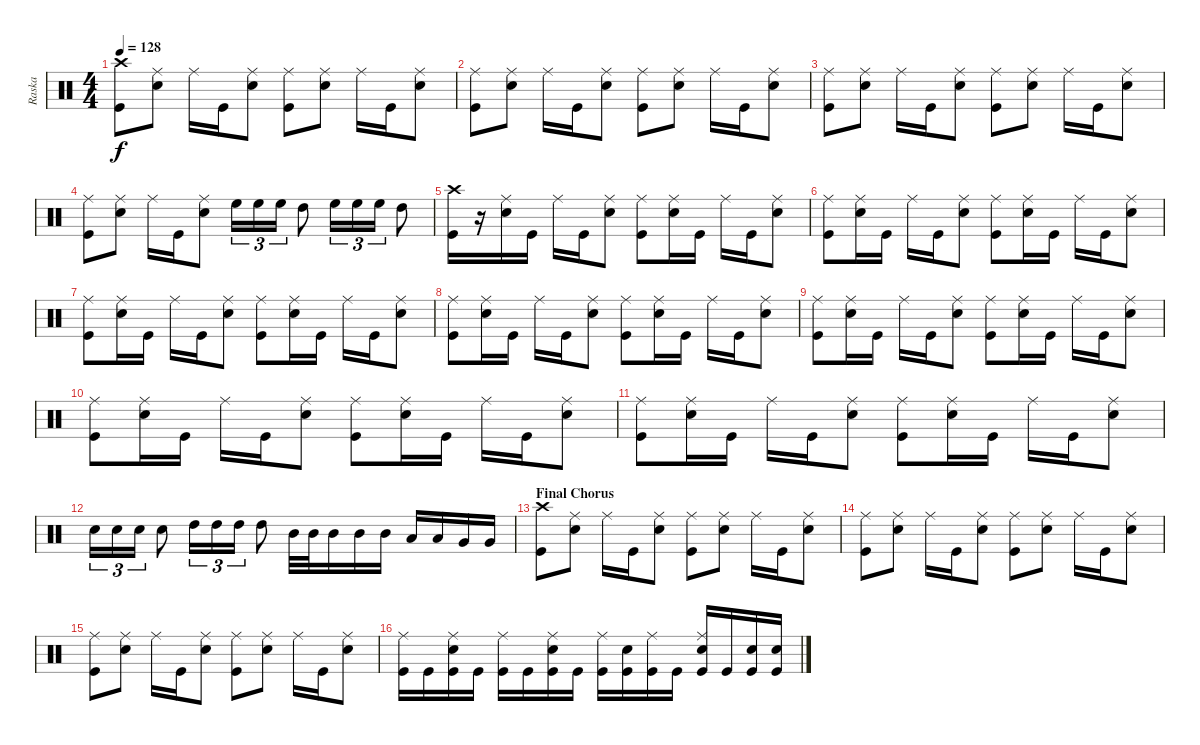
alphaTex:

\track ("Raska" "Raska") {instrument percussion}
\staff {score}
\articulation defaults
\ts (4 4)
\tempo 128
\clef neutral
\ks c
("Crash high (hit)" "Kick (hit)").8{dy f} ("Ride (middle)" "Electric Snare (hit)").8 "Ride (middle)".16 "Kick (hit)".16 ("Ride (middle)" "Electric Snare (hit)").8 ("Ride (middle)" "Kick (hit)").8 ("Ride (middle)" "Electric Snare (hit)").8 "Ride (middle)".16 "Kick (hit)".16 ("Ride (middle)" "Electric Snare (hit)").8 |
("Ride (middle)" "Kick (hit)").8 ("Ride (middle)" "Electric Snare (hit)").8 "Ride (middle)".16 "Kick (hit)".16 ("Ride (middle)" "Electric Snare (hit)").8 ("Ride (middle)" "Kick (hit)").8 ("Ride (middle)" "Electric Snare (hit)").8 "Ride (middle)".16 "Kick (hit)".16 ("Ride (middle)" "Electric Snare (hit)").8 |
("Ride (middle)" "Kick (hit)").8 ("Ride (middle)" "Electric Snare (hit)").8 "Ride (middle)".16 "Kick (hit)".16 ("Ride (middle)" "Electric Snare (hit)").8 ("Ride (middle)" "Kick (hit)").8 ("Ride (middle)" "Electric Snare (hit)").8 "Ride (middle)".16 "Kick (hit)".16 ("Ride (middle)" "Electric Snare (hit)").8 |
("Ride (middle)" "Kick (hit)").8 ("Ride (middle)" "Electric Snare (hit)").8 "Ride (middle)".16 "Kick (hit)".16 ("Ride (middle)" "Electric Snare (hit)").8 "High Floor Tom (hit)".16{tu (3 2)} "High Floor Tom (hit)".16{tu (3 2)} "High Floor Tom (hit)".16{tu (3 2)} "High Tom (hit)".8 "High Floor Tom (hit)".16{tu (3 2)} "High Floor Tom (hit)".16{tu (3 2)} "High Floor Tom (hit)".16{tu (3 2)} "High Tom (hit)".8 |
("Crash high (hit)" "Kick (hit)").16 r.16 ("Ride (middle)" "Electric Snare (hit)").16 "Kick (hit)".16 "Ride (middle)".16 "Kick (hit)".16 ("Ride (middle)" "Electric Snare (hit)").8 ("Ride (middle)" "Kick (hit)").8 ("Ride (middle)" "Electric Snare (hit)").16 "Kick (hit)".16 "Ride (middle)".16 "Kick (hit)".16 ("Ride (middle)" "Electric Snare (hit)").8 |
("Ride (middle)" "Kick (hit)").8 ("Ride (middle)" "Electric Snare (hit)").16 "Kick (hit)".16 "Ride (middle)".16 "Kick (hit)".16 ("Ride (middle)" "Electric Snare (hit)").8 ("Ride (middle)" "Kick (hit)").8 ("Ride (middle)" "Electric Snare (hit)").16 "Kick (hit)".16 "Ride (middle)".16 "Kick (hit)".16 ("Ride (middle)" "Electric Snare (hit)").8 |
("Ride (middle)" "Kick (hit)").8 ("Ride (middle)" "Electric Snare (hit)").16 "Kick (hit)".16 "Ride (middle)".16 "Kick (hit)".16 ("Ride (middle)" "Electric Snare (hit)").8 ("Ride (middle)" "Kick (hit)").8 ("Ride (middle)" "Electric Snare (hit)").16 "Kick (hit)".16 "Ride (middle)".16 "Kick (hit)".16 ("Ride (middle)" "Electric Snare (hit)").8 |
("Ride (middle)" "Kick (hit)").8 ("Ride (middle)" "Electric Snare (hit)").16 "Kick (hit)".16 "Ride (middle)".16 "Kick (hit)".16 ("Ride (middle)" "Electric Snare (hit)").8 ("Ride (middle)" "Kick (hit)").8 ("Ride (middle)" "Electric Snare (hit)").16 "Kick (hit)".16 "Ride (middle)".16 "Kick (hit)".16 ("Ride (middle)" "Electric Snare (hit)").8 |
("Ride (middle)" "Kick (hit)").8 ("Ride (middle)" "Electric Snare (hit)").16 "Kick (hit)".16 "Ride (middle)".16 "Kick (hit)".16 ("Ride (middle)" "Electric Snare (hit)").8 ("Ride (middle)" "Kick (hit)").8 ("Ride (middle)" "Electric Snare (hit)").16 "Kick (hit)".16 "Ride (middle)".16 "Kick (hit)".16 ("Ride (middle)" "Electric Snare (hit)").8 |
("Ride (middle)" "Kick (hit)").8 ("Ride (middle)" "Electric Snare (hit)").16 "Kick (hit)".16 "Ride (middle)".16 "Kick (hit)".16 ("Ride (middle)" "Electric Snare (hit)").8 ("Ride (middle)" "Kick (hit)").8 ("Ride (middle)" "Electric Snare (hit)").16 "Kick (hit)".16 "Ride (middle)".16 "Kick (hit)".16 ("Ride (middle)" "Electric Snare (hit)").8 |
("Ride (middle)" "Kick (hit)").8 ("Ride (middle)" "Electric Snare (hit)").16 "Kick (hit)".16 "Ride (middle)".16 "Kick (hit)".16 ("Ride (middle)" "Electric Snare (hit)").8 ("Ride (middle)" "Kick (hit)").8 ("Ride (middle)" "Electric Snare (hit)").16 "Kick (hit)".16 "Ride (middle)".16 "Kick (hit)".16 ("Ride (middle)" "Electric Snare (hit)").8 |
"Electric Snare (hit)".16{tu (3 2)} "Electric Snare (hit)".16{tu (3 2)} "Electric Snare (hit)".16{tu (3 2)} "Electric Snare (hit)".8 "High Tom (hit)".16{tu (3 2)} "High Tom (hit)".16{tu (3 2)} "High Tom (hit)".16{tu (3 2)} "High Tom (hit)".8 "Mid Tom (hit)".32 "Mid Tom (hit)".32 "Mid Tom (hit)".16 "Mid Tom (hit)".16 "Mid Tom (hit)".16 "Low Tom (hit)".16 "Low Tom (hit)".16 "Very Low Tom (hit)".16 "Very Low Tom (hit)".16 |
\section ("" "Final Chorus")
("Crash high (hit)" "Kick (hit)").8 ("Ride (middle)" "Electric Snare (hit)").8 "Ride (middle)".16 "Kick (hit)".16 ("Ride (middle)" "Electric Snare (hit)").8 ("Ride (middle)" "Kick (hit)").8 ("Ride (middle)" "Electric Snare (hit)").8 "Ride (middle)".16 "Kick (hit)".16 ("Ride (middle)" "Electric Snare (hit)").8 |
("Ride (middle)" "Kick (hit)").8 ("Ride (middle)" "Electric Snare (hit)").8 "Ride (middle)".16 "Kick (hit)".16 ("Ride (middle)" "Electric Snare (hit)").8 ("Ride (middle)" "Kick (hit)").8 ("Ride (middle)" "Electric Snare (hit)").8 "Ride (middle)".16 "Kick (hit)".16 ("Ride (middle)" "Electric Snare (hit)").8 |
("Ride (middle)" "Kick (hit)").8 ("Ride (middle)" "Electric Snare (hit)").8 "Ride (middle)".16 "Kick (hit)".16 ("Ride (middle)" "Electric Snare (hit)").8 ("Ride (middle)" "Kick (hit)").8 ("Ride (middle)" "Electric Snare (hit)").8 "Ride (middle)".16 "Kick (hit)".16 ("Ride (middle)" "Electric Snare (hit)").8 |
("Ride (middle)" "Kick (hit)").16 "Kick (hit)".16 ("Ride (middle)" "Electric Snare (hit)" "Kick (hit)").16 "Kick (hit)".16 ("Ride (middle)" "Kick (hit)").16 "Kick (hit)".16 ("Ride (middle)" "Electric Snare (hit)" "Kick (hit)").16 "Kick (hit)".16 ("Ride (middle)" "Kick (hit)").16 ("Electric Snare (hit)" "Kick (hit)").16 ("Ride (middle)" "Kick (hit)").16 "Kick (hit)".16 ("Ride (middle)" "Electric Snare (hit)" "Kick (hit)").16 "Kick (hit)".16 ("Electric Snare (hit)" "Kick (hit)").16 ("Electric Snare (hit)" "Kick (hit)").16
